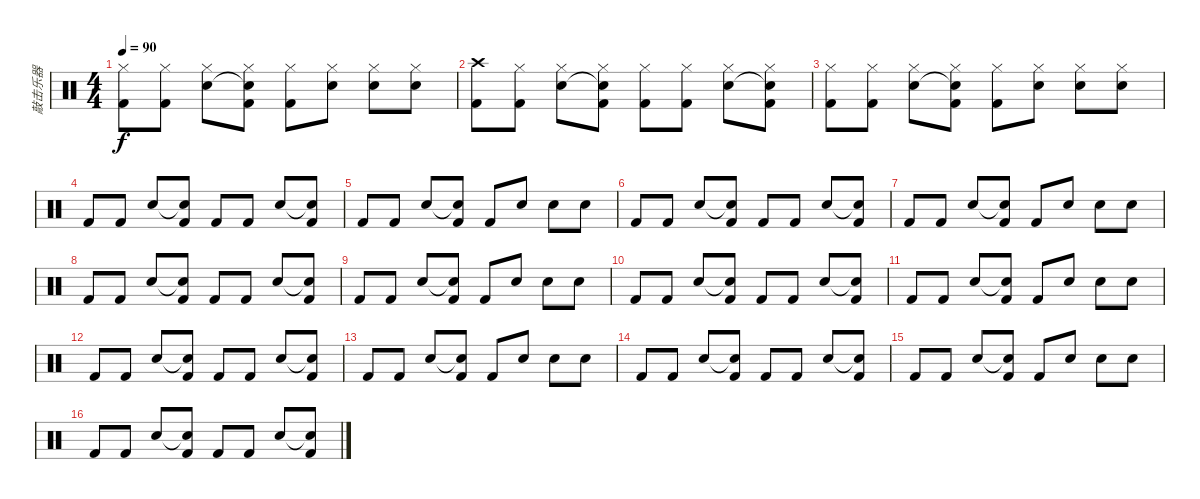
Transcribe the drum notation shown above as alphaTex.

\track ("敲击乐器" "敲击乐器") {instrument percussion}
\staff {score}
\articulation defaults
\ts (4 4)
\tempo 90
\clef neutral
\ks c
("Hi-Hat (closed)" "Kick (hit) 2").8{dy f} ("Hi-Hat (closed)" "Kick (hit) 2").8 ("Hi-Hat (closed)" "Snare (hit) 2").8 ("Hi-Hat (closed)" "Snare (hit)"{t} "Kick (hit) 2").8 ("Hi-Hat (closed)" "Kick (hit) 2").8 ("Hi-Hat (closed)" "Snare (hit) 2").8 ("Hi-Hat (closed)" "Snare (hit) 2").8 ("Hi-Hat (closed)" "Snare (hit) 2").8 |
("Crash high (hit)" "Kick (hit) 2").8 ("Hi-Hat (closed)" "Kick (hit) 2").8 ("Hi-Hat (closed)" "Snare (hit) 2").8 ("Hi-Hat (closed)" "Snare (hit)"{t} "Kick (hit) 2").8 ("Hi-Hat (closed)" "Kick (hit) 2").8 ("Hi-Hat (closed)" "Kick (hit) 2").8 ("Hi-Hat (closed)" "Snare (hit) 2").8 ("Hi-Hat (closed)" "Snare (hit)"{t} "Kick (hit) 2").8 |
("Hi-Hat (closed)" "Kick (hit) 2").8 ("Hi-Hat (closed)" "Kick (hit) 2").8 ("Hi-Hat (closed)" "Snare (hit) 2").8 ("Hi-Hat (closed)" "Snare (hit)"{t} "Kick (hit) 2").8 ("Hi-Hat (closed)" "Kick (hit) 2").8 ("Hi-Hat (closed)" "Snare (hit) 2").8 ("Hi-Hat (closed)" "Snare (hit) 2").8 ("Hi-Hat (closed)" "Snare (hit) 2").8 |
"Kick (hit) 2".8 "Kick (hit) 2".8 "Snare (hit) 2".8 ("Snare (hit)"{t} "Kick (hit) 2").8 "Kick (hit) 2".8 "Kick (hit) 2".8 "Snare (hit) 2".8 ("Snare (hit)"{t} "Kick (hit) 2").8 |
"Kick (hit) 2".8 "Kick (hit) 2".8 "Snare (hit) 2".8 ("Snare (hit)"{t} "Kick (hit) 2").8 "Kick (hit) 2".8 "Snare (hit) 2".8 "Snare (hit) 2".8 "Snare (hit) 2".8 |
"Kick (hit) 2".8 "Kick (hit) 2".8 "Snare (hit) 2".8 ("Snare (hit)"{t} "Kick (hit) 2").8 "Kick (hit) 2".8 "Kick (hit) 2".8 "Snare (hit) 2".8 ("Snare (hit)"{t} "Kick (hit) 2").8 |
"Kick (hit) 2".8 "Kick (hit) 2".8 "Snare (hit) 2".8 ("Snare (hit)"{t} "Kick (hit) 2").8 "Kick (hit) 2".8 "Snare (hit) 2".8 "Snare (hit) 2".8 "Snare (hit) 2".8 |
"Kick (hit) 2".8 "Kick (hit) 2".8 "Snare (hit) 2".8 ("Snare (hit)"{t} "Kick (hit) 2").8 "Kick (hit) 2".8 "Kick (hit) 2".8 "Snare (hit) 2".8 ("Snare (hit)"{t} "Kick (hit) 2").8 |
"Kick (hit) 2".8 "Kick (hit) 2".8 "Snare (hit) 2".8 ("Snare (hit)"{t} "Kick (hit) 2").8 "Kick (hit) 2".8 "Snare (hit) 2".8 "Snare (hit) 2".8 "Snare (hit) 2".8 |
"Kick (hit) 2".8 "Kick (hit) 2".8 "Snare (hit) 2".8 ("Snare (hit)"{t} "Kick (hit) 2").8 "Kick (hit) 2".8 "Kick (hit) 2".8 "Snare (hit) 2".8 ("Snare (hit)"{t} "Kick (hit) 2").8 |
"Kick (hit) 2".8 "Kick (hit) 2".8 "Snare (hit) 2".8 ("Snare (hit)"{t} "Kick (hit) 2").8 "Kick (hit) 2".8 "Snare (hit) 2".8 "Snare (hit) 2".8 "Snare (hit) 2".8 |
"Kick (hit) 2".8 "Kick (hit) 2".8 "Snare (hit) 2".8 ("Snare (hit)"{t} "Kick (hit) 2").8 "Kick (hit) 2".8 "Kick (hit) 2".8 "Snare (hit) 2".8 ("Snare (hit)"{t} "Kick (hit) 2").8 |
"Kick (hit) 2".8 "Kick (hit) 2".8 "Snare (hit) 2".8 ("Snare (hit)"{t} "Kick (hit) 2").8 "Kick (hit) 2".8 "Snare (hit) 2".8 "Snare (hit) 2".8 "Snare (hit) 2".8 |
"Kick (hit) 2".8 "Kick (hit) 2".8 "Snare (hit) 2".8 ("Snare (hit)"{t} "Kick (hit) 2").8 "Kick (hit) 2".8 "Kick (hit) 2".8 "Snare (hit) 2".8 ("Snare (hit)"{t} "Kick (hit) 2").8 |
"Kick (hit) 2".8 "Kick (hit) 2".8 "Snare (hit) 2".8 ("Snare (hit)"{t} "Kick (hit) 2").8 "Kick (hit) 2".8 "Snare (hit) 2".8 "Snare (hit) 2".8 "Snare (hit) 2".8 |
"Kick (hit) 2".8 "Kick (hit) 2".8 "Snare (hit) 2".8 ("Snare (hit)"{t} "Kick (hit) 2").8 "Kick (hit) 2".8 "Kick (hit) 2".8 "Snare (hit) 2".8 ("Snare (hit)"{t} "Kick (hit) 2").8
